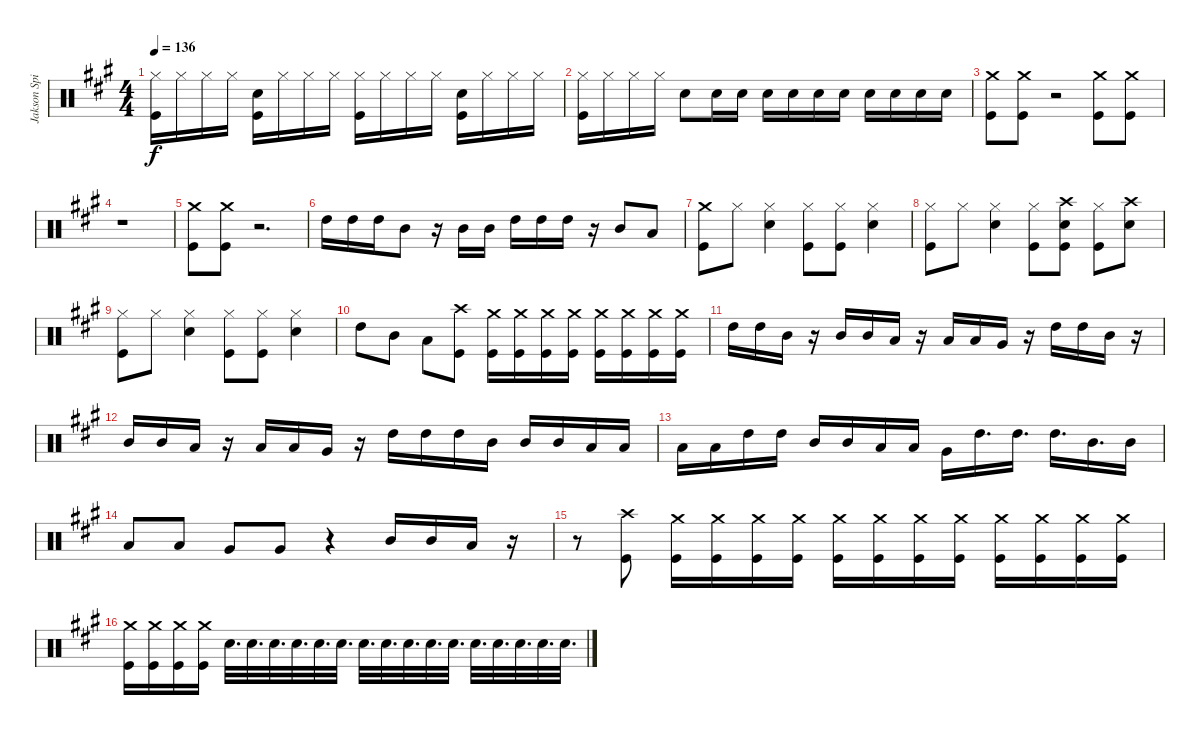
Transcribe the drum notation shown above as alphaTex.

\track ("Jakson Spires Drums" "Jakson Spi") {instrument percussion}
\staff {score}
\articulation defaults
\ts (4 4)
\tempo 136
\clef neutral
\ks a
("Hi-Hat (closed)" "Kick (hit)").16{dy f} "Hi-Hat (closed)".16 "Hi-Hat (closed)".16 "Hi-Hat (closed)".16 ("Snare (hit) 2" "Kick (hit)").16 "Hi-Hat (closed)".16 "Hi-Hat (closed)".16 "Hi-Hat (closed)".16 ("Hi-Hat (closed)" "Kick (hit)").16 "Hi-Hat (closed)".16 "Hi-Hat (closed)".16 "Hi-Hat (closed)".16 ("Snare (hit) 2" "Kick (hit)").16 "Hi-Hat (closed)".16 "Hi-Hat (closed)".16 "Hi-Hat (closed)".16 |
("Hi-Hat (closed)" "Kick (hit)").16 "Hi-Hat (closed)".16 "Hi-Hat (closed)".16 "Hi-Hat (closed)".16 "Snare (hit) 2".8 "Snare (hit) 2".16 "Snare (hit) 2".16 "Snare (hit) 2".16 "Snare (hit) 2".16 "Snare (hit) 2".16 "Snare (hit) 2".16 "Snare (hit) 2".16 "Snare (hit) 2".16 "Snare (hit) 2".16 "Snare (hit) 2".16 |
("Crash medium (hit)" "Kick (hit)").8 ("Crash medium (hit)" "Kick (hit)").8 r.2 ("Crash medium (hit)" "Kick (hit)").8 ("Crash medium (hit)" "Kick (hit)").8 |
r.1 |
("Crash medium (hit)" "Kick (hit)").8 ("Crash medium (hit)" "Kick (hit)").8 r.2{d} |
"High Tom (hit)".16 "High Tom (hit)".16 "High Tom (hit)".16 "Mid Tom (hit)".8 r.16 "Mid Tom (hit)".16 "Mid Tom (hit)".16 "High Tom (hit)".16 "High Tom (hit)".16 "High Tom (hit)".16 r.16 "Mid Tom (hit)".8 "Low Tom (hit)".8 |
("Crash medium (hit)" "Kick (hit)").8 "Hi-Hat (closed)".8 ("Hi-Hat (closed)" "Snare (hit) 2").4 ("Hi-Hat (closed)" "Kick (hit)").8 ("Hi-Hat (closed)" "Kick (hit)").8 ("Hi-Hat (closed)" "Snare (hit) 2").4 |
("Hi-Hat (closed)" "Kick (hit)").8 "Hi-Hat (closed)".8 ("Hi-Hat (closed)" "Snare (hit) 2").4 ("Hi-Hat (closed)" "Kick (hit)").8 ("Crash high (hit)" "Snare (hit) 2" "Kick (hit)").8 ("Hi-Hat (closed)" "Kick (hit)").8 ("Crash high (hit)" "Snare (hit) 2").8 |
("Hi-Hat (closed)" "Kick (hit)").8 "Hi-Hat (closed)".8 ("Hi-Hat (closed)" "Snare (hit) 2").4 ("Hi-Hat (closed)" "Kick (hit)").8 ("Hi-Hat (closed)" "Kick (hit)").8 ("Hi-Hat (closed)" "Snare (hit) 2").4 |
"High Tom (hit)".8 "Mid Tom (hit)".8 "Low Tom (hit)".8 ("Crash high (hit)" "Kick (hit)").8 ("Crash medium (hit)" "Kick (hit)").16 ("Crash medium (hit)" "Kick (hit)").16 ("Crash medium (hit)" "Kick (hit)").16 ("Crash medium (hit)" "Kick (hit)").16 ("Crash medium (hit)" "Kick (hit)").16 ("Crash medium (hit)" "Kick (hit)").16 ("Crash medium (hit)" "Kick (hit)").16 ("Crash medium (hit)" "Kick (hit)").16 |
"High Tom (hit)".16 "High Tom (hit)".16 "Mid Tom (hit)".16 r.16 "Mid Tom (hit)".16 "Mid Tom (hit)".16 "Low Tom (hit)".16 r.16 "Low Tom (hit)".16 "Low Tom (hit)".16 "Very Low Tom (hit)".16 r.16 "High Tom (hit)".16 "High Tom (hit)".16 "Mid Tom (hit)".16 r.16 |
"Mid Tom (hit)".16 "Mid Tom (hit)".16 "Low Tom (hit)".16 r.16 "Low Tom (hit)".16 "Low Tom (hit)".16 "Very Low Tom (hit)".16 r.16 "High Tom (hit)".16 "High Tom (hit)".16 "High Tom (hit)".16 "Mid Tom (hit)".16 "Mid Tom (hit)".16 "Mid Tom (hit)".16 "Low Tom (hit)".16 "Low Tom (hit)".16 |
"Low Tom (hit)".16 "Low Tom (hit)".16 "High Tom (hit)".16 "High Tom (hit)".16 "Mid Tom (hit)".16 "Mid Tom (hit)".16 "Low Tom (hit)".16 "Low Tom (hit)".16 "Very Low Tom (hit)".16 "High Tom (hit)".16{d} "High Tom (hit)".16{d} "High Tom (hit)".16{d} "Mid Tom (hit)".16{d} "Mid Tom (hit)".16 |
"Low Tom (hit)".8 "Low Tom (hit)".8 "Very Low Tom (hit)".8 "Very Low Tom (hit)".8 r.4 "Mid Tom (hit)".16 "Mid Tom (hit)".16 "Low Tom (hit)".16 r.16 |
r.8 ("Crash high (hit)" "Kick (hit)").8 ("Crash medium (hit)" "Kick (hit)").16 ("Crash medium (hit)" "Kick (hit)").16 ("Crash medium (hit)" "Kick (hit)").16 ("Crash medium (hit)" "Kick (hit)").16 ("Crash medium (hit)" "Kick (hit)").16 ("Crash medium (hit)" "Kick (hit)").16 ("Crash medium (hit)" "Kick (hit)").16 ("Crash medium (hit)" "Kick (hit)").16 ("Crash medium (hit)" "Kick (hit)").16 ("Crash medium (hit)" "Kick (hit)").16 ("Crash medium (hit)" "Kick (hit)").16 ("Crash medium (hit)" "Kick (hit)").16 |
("Crash medium (hit)" "Kick (hit)").16 ("Crash medium (hit)" "Kick (hit)").16 ("Crash medium (hit)" "Kick (hit)").16 ("Crash medium (hit)" "Kick (hit)").16 "Snare (hit) 2".32{d} "Snare (hit) 2".32{d} "Snare (hit) 2".32{d} "Snare (hit) 2".32{d} "Snare (hit) 2".32{d} "Snare (hit) 2".32{d} "Snare (hit) 2".32{d} "Snare (hit) 2".32{d} "Snare (hit) 2".32{d} "Snare (hit) 2".32{d} "Snare (hit) 2".32{d} "Snare (hit) 2".32{d} "Snare (hit) 2".32{d} "Snare (hit) 2".32{d} "Snare (hit) 2".32{d} "Snare (hit) 2".32{d}
